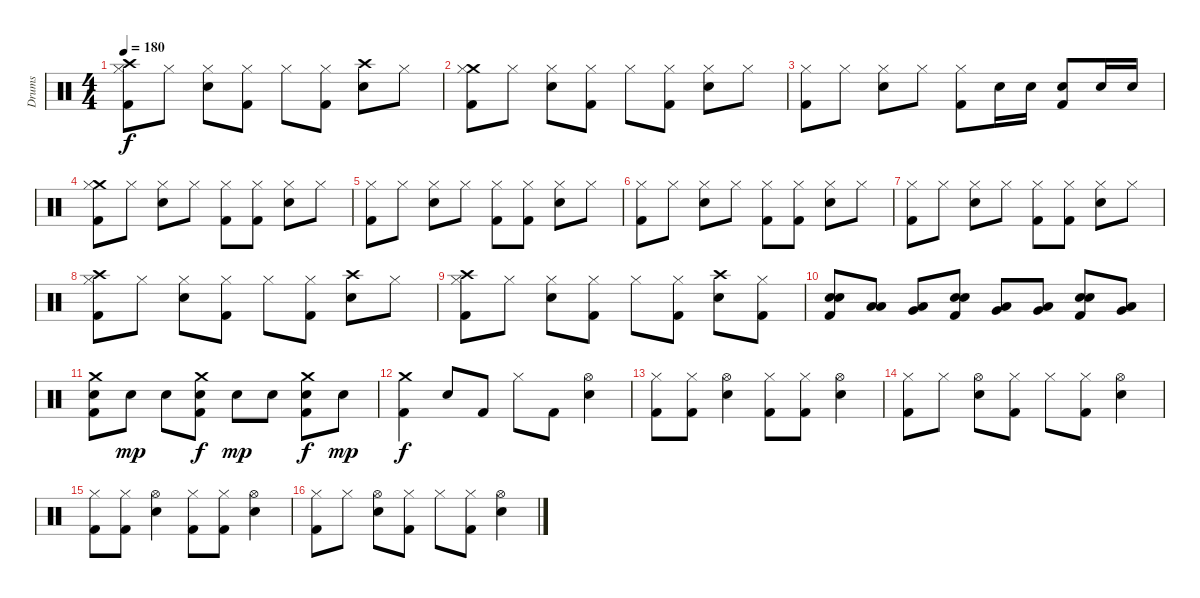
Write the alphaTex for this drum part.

\track ("Drums" "Drums") {instrument percussion}
\staff {score}
\articulation defaults
\ts (4 4)
\tempo 180
\clef neutral
\ks c
("Crash high (hit)" "Hi-Hat (closed)" "Kick (hit) 2").8{dy f} "Hi-Hat (closed)".8 ("Hi-Hat (closed)" "Electric Snare (hit)").8 ("Hi-Hat (closed)" "Kick (hit) 2").8 "Hi-Hat (closed)".8 ("Hi-Hat (closed)" "Kick (hit) 2").8 ("Crash high (hit)" "Electric Snare (hit)").8 "Hi-Hat (closed)".8 |
("Crash medium (hit)" "Hi-Hat (closed)" "Kick (hit) 2").8 "Hi-Hat (closed)".8 ("Hi-Hat (closed)" "Electric Snare (hit)").8 ("Hi-Hat (closed)" "Kick (hit) 2").8 "Hi-Hat (closed)".8 ("Hi-Hat (closed)" "Kick (hit) 2").8 ("Hi-Hat (closed)" "Electric Snare (hit)").8 "Hi-Hat (closed)".8 |
("Hi-Hat (closed)" "Kick (hit) 2").8 "Hi-Hat (closed)".8 ("Hi-Hat (closed)" "Electric Snare (hit)").8 "Hi-Hat (closed)".8 ("Hi-Hat (closed)" "Kick (hit) 2").8 "Electric Snare (hit)".16 "Electric Snare (hit)".16 ("Electric Snare (hit)" "Kick (hit) 2").8 "Electric Snare (hit)".16 "Electric Snare (hit)".16 |
("Crash medium (hit)" "Hi-Hat (closed)" "Kick (hit) 2").8 "Hi-Hat (closed)".8 ("Hi-Hat (closed)" "Electric Snare (hit)").8 "Hi-Hat (closed)".8 ("Hi-Hat (closed)" "Kick (hit) 2").8 ("Hi-Hat (closed)" "Kick (hit) 2").8 ("Hi-Hat (closed)" "Electric Snare (hit)").8 "Hi-Hat (closed)".8 |
("Hi-Hat (closed)" "Kick (hit) 2").8 "Hi-Hat (closed)".8 ("Hi-Hat (closed)" "Electric Snare (hit)").8 "Hi-Hat (closed)".8 ("Hi-Hat (closed)" "Kick (hit) 2").8 ("Hi-Hat (closed)" "Kick (hit) 2").8 ("Hi-Hat (closed)" "Electric Snare (hit)").8 "Hi-Hat (closed)".8 |
("Hi-Hat (closed)" "Kick (hit) 2").8 "Hi-Hat (closed)".8 ("Hi-Hat (closed)" "Electric Snare (hit)").8 "Hi-Hat (closed)".8 ("Hi-Hat (closed)" "Kick (hit) 2").8 ("Hi-Hat (closed)" "Kick (hit) 2").8 ("Hi-Hat (closed)" "Electric Snare (hit)").8 "Hi-Hat (closed)".8 |
("Hi-Hat (closed)" "Kick (hit) 2").8 "Hi-Hat (closed)".8 ("Hi-Hat (closed)" "Electric Snare (hit)").8 "Hi-Hat (closed)".8 ("Hi-Hat (closed)" "Kick (hit) 2").8 ("Hi-Hat (closed)" "Kick (hit) 2").8 ("Hi-Hat (closed)" "Electric Snare (hit)").8 "Hi-Hat (closed)".8 |
("Crash high (hit)" "Hi-Hat (closed)" "Kick (hit) 2").8 "Hi-Hat (closed)".8 ("Hi-Hat (closed)" "Electric Snare (hit)").8 ("Hi-Hat (closed)" "Kick (hit) 2").8 "Hi-Hat (closed)".8 ("Hi-Hat (closed)" "Kick (hit) 2").8 ("Crash high (hit)" "Electric Snare (hit)").8 "Hi-Hat (closed)".8 |
("Crash high (hit)" "Hi-Hat (closed)" "Kick (hit) 2").8 "Hi-Hat (closed)".8 ("Hi-Hat (closed)" "Electric Snare (hit)").8 ("Hi-Hat (closed)" "Kick (hit) 2").8 "Hi-Hat (closed)".8 ("Hi-Hat (closed)" "Kick (hit) 2").8 ("Crash high (hit)" "Electric Snare (hit)").8 ("Hi-Hat (closed)" "Kick (hit) 2").8 |
("Electric Snare (hit)" "Electric Snare (hit)" "Kick (hit) 2").8 ("Low Tom (hit)" "Low Tom (hit)").8 ("Very Low Tom (hit)" "Low Floor Tom (hit)").8 ("Electric Snare (hit)" "Electric Snare (hit)" "Kick (hit) 2").8 ("Low Tom (hit)" "Very Low Tom (hit)").8 ("Very Low Tom (hit)" "Low Floor Tom (hit)").8 ("Electric Snare (hit)" "Electric Snare (hit)" "Kick (hit) 2").8 ("Low Tom (hit)" "Very Low Tom (hit)").8 |
("Crash medium (hit)" "Electric Snare (hit)" "Kick (hit) 2").8 "Electric Snare (hit)".8{dy mp} "Electric Snare (hit)".8 ("Crash medium (hit)" "Electric Snare (hit)" "Kick (hit) 2").8{dy f} "Electric Snare (hit)".8{dy mp} "Electric Snare (hit)".8 ("Crash medium (hit)" "Electric Snare (hit)" "Kick (hit) 2").8{dy f} "Electric Snare (hit)".8{dy mp} |
\section ("" "")
("Crash medium (hit)" "Kick (hit) 2").4{dy f} "Electric Snare (hit)".8 "Kick (hit) 2".8 "Hi-Hat (closed)".8 "Kick (hit) 2".8 ("Hi-Hat (open)" "Electric Snare (hit)").4 |
("Hi-Hat (closed)" "Kick (hit) 2").8 ("Hi-Hat (closed)" "Kick (hit) 2").8 ("Hi-Hat (open)" "Electric Snare (hit)").4 ("Hi-Hat (closed)" "Kick (hit) 2").8 ("Hi-Hat (closed)" "Kick (hit) 2").8 ("Hi-Hat (open)" "Electric Snare (hit)").4 |
("Hi-Hat (closed)" "Kick (hit) 2").8 "Hi-Hat (closed)".8 ("Hi-Hat (open)" "Electric Snare (hit)").8 ("Hi-Hat (closed)" "Kick (hit) 2").8 "Hi-Hat (closed)".8 ("Hi-Hat (closed)" "Kick (hit) 2").8 ("Hi-Hat (open)" "Electric Snare (hit)").4 |
("Hi-Hat (closed)" "Kick (hit) 2").8 ("Hi-Hat (closed)" "Kick (hit) 2").8 ("Hi-Hat (open)" "Electric Snare (hit)").4 ("Hi-Hat (closed)" "Kick (hit) 2").8 ("Hi-Hat (closed)" "Kick (hit) 2").8 ("Hi-Hat (open)" "Electric Snare (hit)").4 |
("Hi-Hat (closed)" "Kick (hit) 2").8 "Hi-Hat (closed)".8 ("Hi-Hat (open)" "Electric Snare (hit)").8 ("Hi-Hat (closed)" "Kick (hit) 2").8 "Hi-Hat (closed)".8 ("Hi-Hat (closed)" "Kick (hit) 2").8 ("Hi-Hat (open)" "Electric Snare (hit)").4
